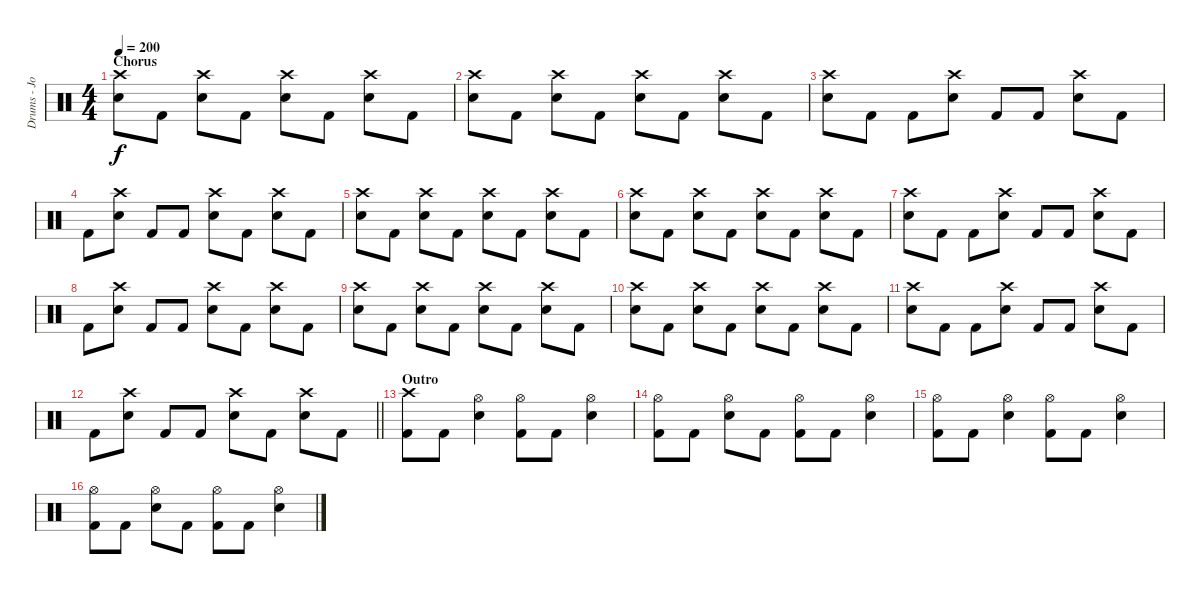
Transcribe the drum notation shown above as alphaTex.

\track ("Drums - John" "Drums - Jo") {instrument percussion}
\staff {score}
\articulation defaults
\ts (4 4)
\section ("" "Chorus")
\tempo 200
\clef neutral
\ks c
("Crash high (hit)" "Electric Snare (hit)").8{dy f} "Kick (hit) 2".8 ("Crash high (hit)" "Electric Snare (hit)").8 "Kick (hit) 2".8 ("Crash high (hit)" "Electric Snare (hit)").8 "Kick (hit) 2".8 ("Crash high (hit)" "Electric Snare (hit)").8 "Kick (hit) 2".8 |
("Crash high (hit)" "Electric Snare (hit)").8 "Kick (hit) 2".8 ("Crash high (hit)" "Electric Snare (hit)").8 "Kick (hit) 2".8 ("Crash high (hit)" "Electric Snare (hit)").8 "Kick (hit) 2".8 ("Crash high (hit)" "Electric Snare (hit)").8 "Kick (hit) 2".8 |
("Crash high (hit)" "Electric Snare (hit)").8 "Kick (hit) 2".8 "Kick (hit) 2".8 ("Crash high (hit)" "Electric Snare (hit)").8 "Kick (hit) 2".8 "Kick (hit) 2".8 ("Crash high (hit)" "Electric Snare (hit)").8 "Kick (hit) 2".8 |
"Kick (hit) 2".8 ("Crash high (hit)" "Electric Snare (hit)").8 "Kick (hit) 2".8 "Kick (hit) 2".8 ("Crash high (hit)" "Electric Snare (hit)").8 "Kick (hit) 2".8 ("Crash high (hit)" "Electric Snare (hit)").8 "Kick (hit) 2".8 |
("Crash high (hit)" "Electric Snare (hit)").8 "Kick (hit) 2".8 ("Crash high (hit)" "Electric Snare (hit)").8 "Kick (hit) 2".8 ("Crash high (hit)" "Electric Snare (hit)").8 "Kick (hit) 2".8 ("Crash high (hit)" "Electric Snare (hit)").8 "Kick (hit) 2".8 |
("Crash high (hit)" "Electric Snare (hit)").8 "Kick (hit) 2".8 ("Crash high (hit)" "Electric Snare (hit)").8 "Kick (hit) 2".8 ("Crash high (hit)" "Electric Snare (hit)").8 "Kick (hit) 2".8 ("Crash high (hit)" "Electric Snare (hit)").8 "Kick (hit) 2".8 |
("Crash high (hit)" "Electric Snare (hit)").8 "Kick (hit) 2".8 "Kick (hit) 2".8 ("Crash high (hit)" "Electric Snare (hit)").8 "Kick (hit) 2".8 "Kick (hit) 2".8 ("Crash high (hit)" "Electric Snare (hit)").8 "Kick (hit) 2".8 |
"Kick (hit) 2".8 ("Crash high (hit)" "Electric Snare (hit)").8 "Kick (hit) 2".8 "Kick (hit) 2".8 ("Crash high (hit)" "Electric Snare (hit)").8 "Kick (hit) 2".8 ("Crash high (hit)" "Electric Snare (hit)").8 "Kick (hit) 2".8 |
("Crash high (hit)" "Electric Snare (hit)").8 "Kick (hit) 2".8 ("Crash high (hit)" "Electric Snare (hit)").8 "Kick (hit) 2".8 ("Crash high (hit)" "Electric Snare (hit)").8 "Kick (hit) 2".8 ("Crash high (hit)" "Electric Snare (hit)").8 "Kick (hit) 2".8 |
("Crash high (hit)" "Electric Snare (hit)").8 "Kick (hit) 2".8 ("Crash high (hit)" "Electric Snare (hit)").8 "Kick (hit) 2".8 ("Crash high (hit)" "Electric Snare (hit)").8 "Kick (hit) 2".8 ("Crash high (hit)" "Electric Snare (hit)").8 "Kick (hit) 2".8 |
("Crash high (hit)" "Electric Snare (hit)").8 "Kick (hit) 2".8 "Kick (hit) 2".8 ("Crash high (hit)" "Electric Snare (hit)").8 "Kick (hit) 2".8 "Kick (hit) 2".8 ("Crash high (hit)" "Electric Snare (hit)").8 "Kick (hit) 2".8 |
\barLineRight lightlight "Kick (hit) 2".8
("Crash high (hit)" "Electric Snare (hit)").8 "Kick (hit) 2".8 "Kick (hit) 2".8 ("Crash high (hit)" "Electric Snare (hit)").8 "Kick (hit) 2".8 ("Crash high (hit)" "Electric Snare (hit)").8 "Kick (hit) 2".8 |
\section ("" "Outro")
("Crash high (hit)" "Kick (hit) 2").8 "Kick (hit) 2".8 ("Electric Snare (hit)" "Hi-Hat (open)").4 ("Kick (hit) 2" "Hi-Hat (open)").8 "Kick (hit) 2".8 ("Electric Snare (hit)" "Hi-Hat (open)").4 |
("Kick (hit) 2" "Hi-Hat (open)").8 "Kick (hit) 2".8 ("Electric Snare (hit)" "Hi-Hat (open)").8 "Kick (hit) 2".8 ("Kick (hit) 2" "Hi-Hat (open)").8 "Kick (hit) 2".8 ("Electric Snare (hit)" "Hi-Hat (open)").4 |
("Kick (hit) 2" "Hi-Hat (open)").8 "Kick (hit) 2".8 ("Electric Snare (hit)" "Hi-Hat (open)").4 ("Kick (hit) 2" "Hi-Hat (open)").8 "Kick (hit) 2".8 ("Electric Snare (hit)" "Hi-Hat (open)").4 |
("Kick (hit) 2" "Hi-Hat (open)").8 "Kick (hit) 2".8 ("Electric Snare (hit)" "Hi-Hat (open)").8 "Kick (hit) 2".8 ("Kick (hit) 2" "Hi-Hat (open)").8 "Kick (hit) 2".8 ("Electric Snare (hit)" "Hi-Hat (open)").4
